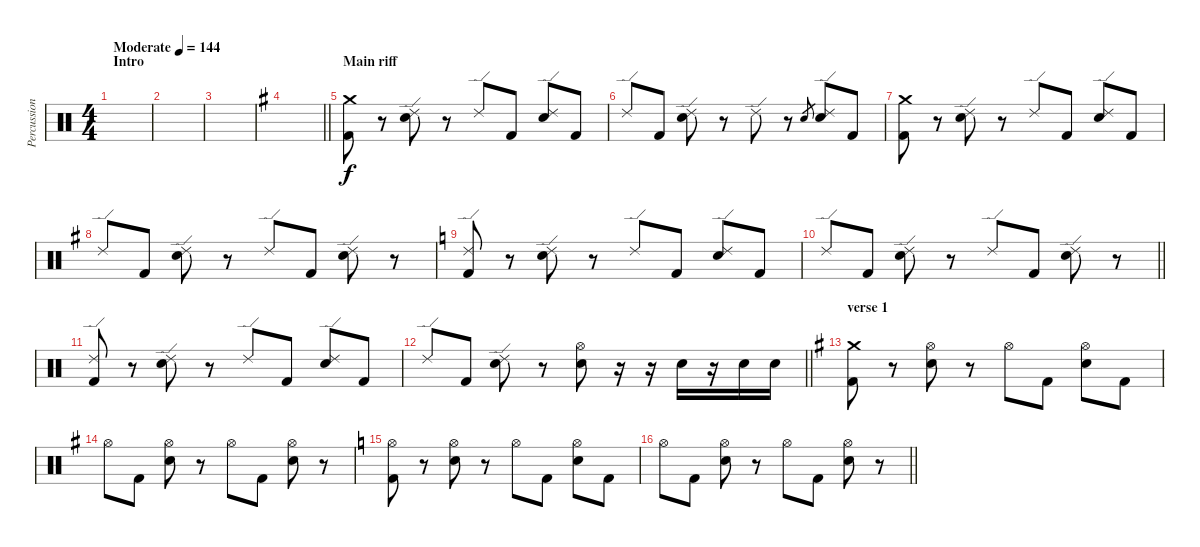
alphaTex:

\track ("Percussion" "Percussion") {instrument percussion}
\staff {score}
\articulation defaults
\ts (4 4)
\section ("" "Intro ")
\tempo (144 "Moderate")
\clef neutral
\ks c
|
|
|
\barLineRight lightlight
\ks g
|
\section ("" "Main riff")
("Crash medium (hit)" "Kick (hit) 2").8 r.8 ("Ride (edge) 2" "Electric Snare (hit)").8 r.8 "Ride (edge) 2".8 "Kick (hit) 2".8 ("Ride (edge) 2" "Electric Snare (hit)").8 "Kick (hit) 2".8 |
"Ride (edge) 2".8 "Kick (hit) 2".8 ("Ride (edge) 2" "Electric Snare (hit)").8 r.8 "Ride (edge) 2".8 r.8 "Electric Snare (hit)".8{gr} ("Ride (edge) 2" "Electric Snare (hit)").8 "Kick (hit) 2".8 |
("Crash medium (hit)" "Kick (hit) 2").8 r.8 ("Ride (edge) 2" "Electric Snare (hit)").8 r.8 "Ride (edge) 2".8 "Kick (hit) 2".8 ("Ride (edge) 2" "Electric Snare (hit)").8 "Kick (hit) 2".8 |
"Ride (edge) 2".8 "Kick (hit) 2".8 ("Ride (edge) 2" "Electric Snare (hit)").8 r.8 "Ride (edge) 2".8 "Kick (hit) 2".8 ("Ride (edge) 2" "Electric Snare (hit)").8 r.8 |
\ks c
("Ride (edge) 2" "Kick (hit) 2").8 r.8 ("Ride (edge) 2" "Electric Snare (hit)").8 r.8 "Ride (edge) 2".8 "Kick (hit) 2".8 ("Ride (edge) 2" "Electric Snare (hit)").8 "Kick (hit) 2".8 |
\barLineRight lightlight "Ride (edge) 2".8 "Kick (hit) 2".8
("Ride (edge) 2" "Electric Snare (hit)").8 r.8 "Ride (edge) 2".8 "Kick (hit) 2".8 ("Ride (edge) 2" "Electric Snare (hit)").8 r.8 |
("Ride (edge) 2" "Kick (hit) 2").8 r.8 ("Ride (edge) 2" "Electric Snare (hit)").8 r.8 "Ride (edge) 2".8 "Kick (hit) 2".8 ("Ride (edge) 2" "Electric Snare (hit)").8 "Kick (hit) 2".8 |
\barLineRight lightlight "Ride (edge) 2".8 "Kick (hit) 2".8
("Ride (edge) 2" "Electric Snare (hit)").8 r.8 ("Hi-Hat (open)" "Electric Snare (hit)").8 r.16 r.16 "Electric Snare (hit)".16 r.16 "Electric Snare (hit)".16 "Electric Snare (hit)".16 |
\section ("" "verse 1")
\ks g
("Crash medium (hit)" "Kick (hit) 2").8 r.8 ("Hi-Hat (open)" "Electric Snare (hit)").8 r.8 "Hi-Hat (open)".8 "Kick (hit) 2".8 ("Hi-Hat (open)" "Electric Snare (hit)").8 "Kick (hit) 2".8 |
"Hi-Hat (open)".8 "Kick (hit) 2".8 ("Hi-Hat (open)" "Electric Snare (hit)").8 r.8 "Hi-Hat (open)".8 "Kick (hit) 2".8 ("Hi-Hat (open)" "Electric Snare (hit)").8 r.8 |
\ks c
("Hi-Hat (open)" "Kick (hit) 2").8 r.8 ("Hi-Hat (open)" "Electric Snare (hit)").8 r.8 "Hi-Hat (open)".8 "Kick (hit) 2".8 ("Hi-Hat (open)" "Electric Snare (hit)").8 "Kick (hit) 2".8 |
\barLineRight lightlight "Hi-Hat (open)".8 "Kick (hit) 2".8
("Hi-Hat (open)" "Electric Snare (hit)").8 r.8 "Hi-Hat (open)".8 "Kick (hit) 2".8 ("Hi-Hat (open)" "Electric Snare (hit)").8 r.8
